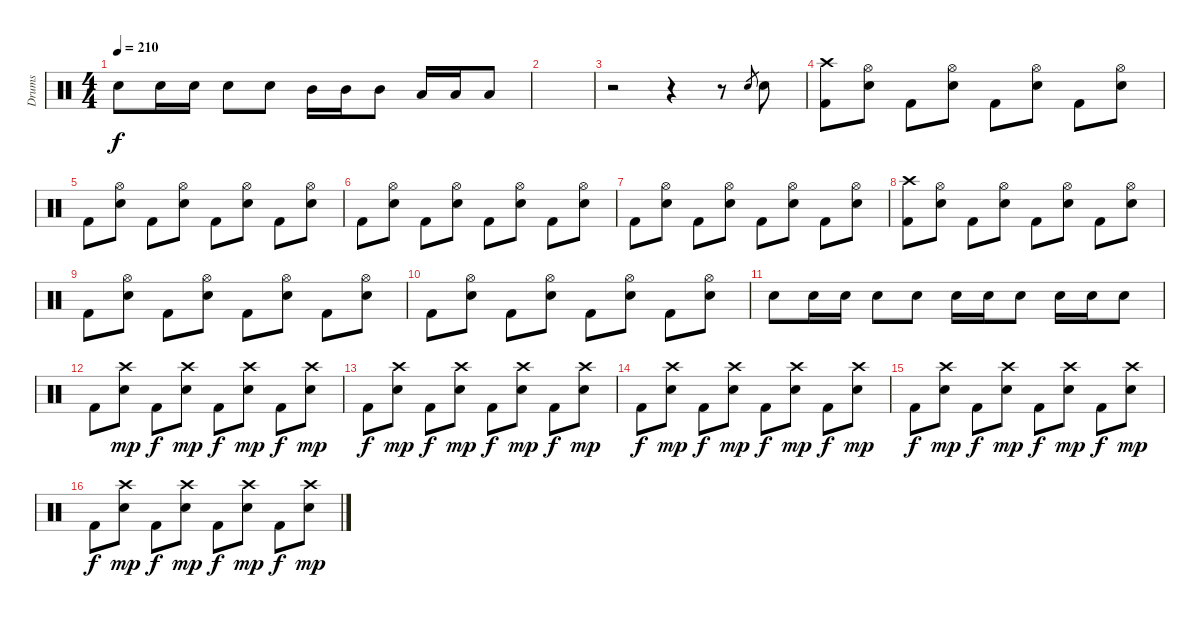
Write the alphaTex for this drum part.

\track ("Drums" "Drums") {instrument percussion}
\staff {score}
\articulation defaults
\ts (4 4)
\tempo 210
\clef neutral
\ks c "Electric Snare (hit)".8{dy f} "Electric Snare (hit)".16 "Electric Snare (hit)".16 "Electric Snare (hit)".8 "Electric Snare (hit)".8 "Mid Tom (hit)".16 "Mid Tom (hit)".16 "Mid Tom (hit)".8 "Low Tom (hit)".16 "Low Tom (hit)".16 "Low Tom (hit)".8
|
|
r.2 r.4 r.8 "Electric Snare (hit)".8{gr} "Electric Snare (hit)".8 |
("Crash high (hit)" "Kick (hit) 2").8 ("Hi-Hat (open)" "Electric Snare (hit)").8 "Kick (hit) 2".8 ("Hi-Hat (open)" "Electric Snare (hit)").8 "Kick (hit) 2".8 ("Hi-Hat (open)" "Electric Snare (hit)").8 "Kick (hit) 2".8 ("Hi-Hat (open)" "Electric Snare (hit)").8 |
"Kick (hit) 2".8 ("Hi-Hat (open)" "Electric Snare (hit)").8 "Kick (hit) 2".8 ("Hi-Hat (open)" "Electric Snare (hit)").8 "Kick (hit) 2".8 ("Hi-Hat (open)" "Electric Snare (hit)").8 "Kick (hit) 2".8 ("Hi-Hat (open)" "Electric Snare (hit)").8 |
"Kick (hit) 2".8 ("Hi-Hat (open)" "Electric Snare (hit)").8 "Kick (hit) 2".8 ("Hi-Hat (open)" "Electric Snare (hit)").8 "Kick (hit) 2".8 ("Hi-Hat (open)" "Electric Snare (hit)").8 "Kick (hit) 2".8 ("Hi-Hat (open)" "Electric Snare (hit)").8 |
"Kick (hit) 2".8 ("Hi-Hat (open)" "Electric Snare (hit)").8 "Kick (hit) 2".8 ("Hi-Hat (open)" "Electric Snare (hit)").8 "Kick (hit) 2".8 ("Hi-Hat (open)" "Electric Snare (hit)").8 "Kick (hit) 2".8 ("Hi-Hat (open)" "Electric Snare (hit)").8 |
("Crash high (hit)" "Kick (hit) 2").8 ("Hi-Hat (open)" "Electric Snare (hit)").8 "Kick (hit) 2".8 ("Hi-Hat (open)" "Electric Snare (hit)").8 "Kick (hit) 2".8 ("Hi-Hat (open)" "Electric Snare (hit)").8 "Kick (hit) 2".8 ("Hi-Hat (open)" "Electric Snare (hit)").8 |
"Kick (hit) 2".8 ("Hi-Hat (open)" "Electric Snare (hit)").8 "Kick (hit) 2".8 ("Hi-Hat (open)" "Electric Snare (hit)").8 "Kick (hit) 2".8 ("Hi-Hat (open)" "Electric Snare (hit)").8 "Kick (hit) 2".8 ("Hi-Hat (open)" "Electric Snare (hit)").8 |
"Kick (hit) 2".8 ("Hi-Hat (open)" "Electric Snare (hit)").8 "Kick (hit) 2".8 ("Hi-Hat (open)" "Electric Snare (hit)").8 "Kick (hit) 2".8 ("Hi-Hat (open)" "Electric Snare (hit)").8 "Kick (hit) 2".8 ("Hi-Hat (open)" "Electric Snare (hit)").8 |
"Electric Snare (hit)".8 "Electric Snare (hit)".16 "Electric Snare (hit)".16 "Electric Snare (hit)".8 "Electric Snare (hit)".8 "Electric Snare (hit)".16 "Electric Snare (hit)".16 "Electric Snare (hit)".8 "Electric Snare (hit)".16 "Electric Snare (hit)".16 "Electric Snare (hit)".8 |
"Kick (hit) 2".8 ("Crash high (hit)" "Electric Snare (hit)").8{dy mp} "Kick (hit) 2".8{dy f} ("Crash high (hit)" "Electric Snare (hit)").8{dy mp} "Kick (hit) 2".8{dy f} ("Crash high (hit)" "Electric Snare (hit)").8{dy mp} "Kick (hit) 2".8{dy f} ("Crash high (hit)" "Electric Snare (hit)").8{dy mp} |
"Kick (hit) 2".8{dy f} ("Crash high (hit)" "Electric Snare (hit)").8{dy mp} "Kick (hit) 2".8{dy f} ("Crash high (hit)" "Electric Snare (hit)").8{dy mp} "Kick (hit) 2".8{dy f} ("Crash high (hit)" "Electric Snare (hit)").8{dy mp} "Kick (hit) 2".8{dy f} ("Crash high (hit)" "Electric Snare (hit)").8{dy mp} |
"Kick (hit) 2".8{dy f} ("Crash high (hit)" "Electric Snare (hit)").8{dy mp} "Kick (hit) 2".8{dy f} ("Crash high (hit)" "Electric Snare (hit)").8{dy mp} "Kick (hit) 2".8{dy f} ("Crash high (hit)" "Electric Snare (hit)").8{dy mp} "Kick (hit) 2".8{dy f} ("Crash high (hit)" "Electric Snare (hit)").8{dy mp} |
"Kick (hit) 2".8{dy f} ("Crash high (hit)" "Electric Snare (hit)").8{dy mp} "Kick (hit) 2".8{dy f} ("Crash high (hit)" "Electric Snare (hit)").8{dy mp} "Kick (hit) 2".8{dy f} ("Crash high (hit)" "Electric Snare (hit)").8{dy mp} "Kick (hit) 2".8{dy f} ("Crash high (hit)" "Electric Snare (hit)").8{dy mp} |
"Kick (hit) 2".8{dy f} ("Crash high (hit)" "Electric Snare (hit)").8{dy mp} "Kick (hit) 2".8{dy f} ("Crash high (hit)" "Electric Snare (hit)").8{dy mp} "Kick (hit) 2".8{dy f} ("Crash high (hit)" "Electric Snare (hit)").8{dy mp} "Kick (hit) 2".8{dy f} ("Crash high (hit)" "Electric Snare (hit)").8{dy mp}
